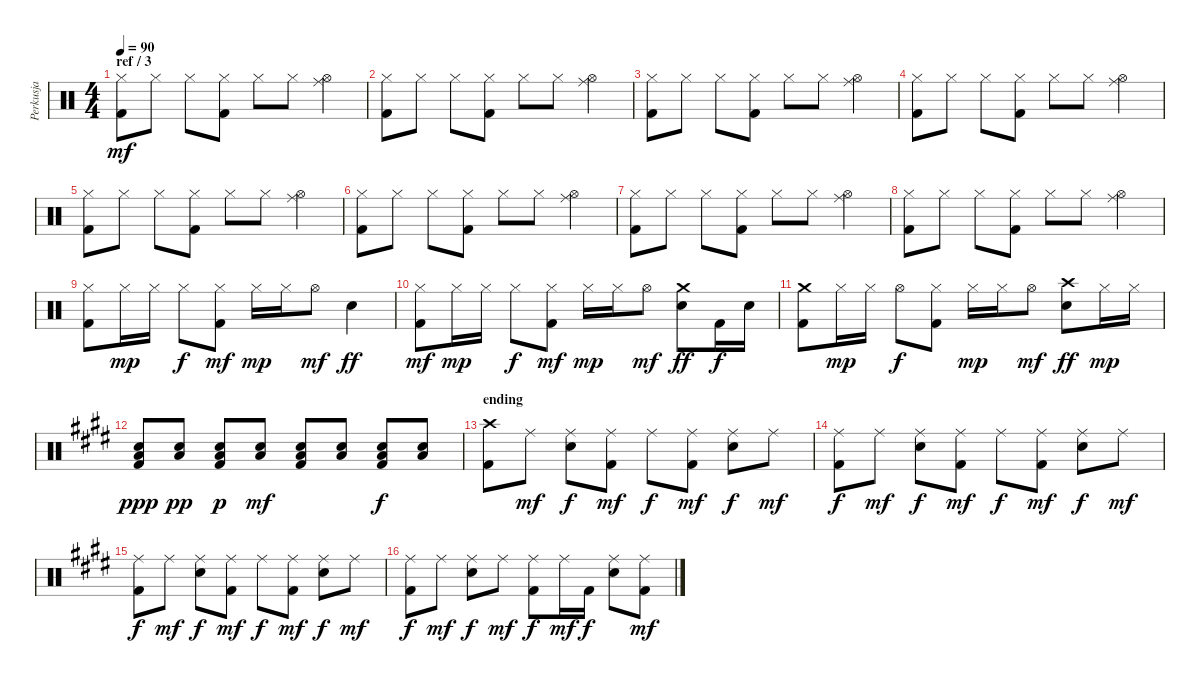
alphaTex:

\track ("Perkusja" "Perkusja") {instrument percussion}
\staff {score}
\articulation defaults
\ts (4 4)
\section ("" "ref / 3")
\tempo 90
\clef neutral
\ks c
("Hi-Hat (closed)" "Kick (hit) 2").8{dy mf} "Hi-Hat (closed)".8 "Hi-Hat (closed)".8 ("Hi-Hat (closed)" "Kick (hit) 2").8 "Hi-Hat (closed)".8 "Hi-Hat (closed)".8 ("Hi-Hat (open)" "Ride (middle)").4 |
("Hi-Hat (closed)" "Kick (hit) 2").8 "Hi-Hat (closed)".8 "Hi-Hat (closed)".8 ("Hi-Hat (closed)" "Kick (hit) 2").8 "Hi-Hat (closed)".8 "Hi-Hat (closed)".8 ("Hi-Hat (open)" "Ride (middle)").4 |
("Hi-Hat (closed)" "Kick (hit) 2").8 "Hi-Hat (closed)".8 "Hi-Hat (closed)".8 ("Hi-Hat (closed)" "Kick (hit) 2").8 "Hi-Hat (closed)".8 "Hi-Hat (closed)".8 ("Hi-Hat (open)" "Ride (middle)").4 |
("Hi-Hat (closed)" "Kick (hit) 2").8 "Hi-Hat (closed)".8 "Hi-Hat (closed)".8 ("Hi-Hat (closed)" "Kick (hit) 2").8 "Hi-Hat (closed)".8 "Hi-Hat (closed)".8 ("Hi-Hat (open)" "Ride (middle)").4 |
("Hi-Hat (closed)" "Kick (hit) 2").8 "Hi-Hat (closed)".8 "Hi-Hat (closed)".8 ("Hi-Hat (closed)" "Kick (hit) 2").8 "Hi-Hat (closed)".8 "Hi-Hat (closed)".8 ("Hi-Hat (open)" "Ride (middle)").4 |
("Hi-Hat (closed)" "Kick (hit) 2").8 "Hi-Hat (closed)".8 "Hi-Hat (closed)".8 ("Hi-Hat (closed)" "Kick (hit) 2").8 "Hi-Hat (closed)".8 "Hi-Hat (closed)".8 ("Hi-Hat (open)" "Ride (middle)").4 |
("Hi-Hat (closed)" "Kick (hit) 2").8 "Hi-Hat (closed)".8 "Hi-Hat (closed)".8 ("Hi-Hat (closed)" "Kick (hit) 2").8 "Hi-Hat (closed)".8 "Hi-Hat (closed)".8 ("Hi-Hat (open)" "Ride (middle)").4 |
("Hi-Hat (closed)" "Kick (hit) 2").8 "Hi-Hat (closed)".8 "Hi-Hat (closed)".8 ("Hi-Hat (closed)" "Kick (hit) 2").8 "Hi-Hat (closed)".8 "Hi-Hat (closed)".8 ("Hi-Hat (open)" "Ride (middle)").4 |
("Hi-Hat (closed)" "Kick (hit) 2").8 "Hi-Hat (closed)".16{dy mp} "Hi-Hat (closed)".16 "Hi-Hat (closed)".8{dy f} ("Hi-Hat (closed)" "Kick (hit) 2").8{dy mf} "Hi-Hat (closed)".16{dy mp} "Hi-Hat (closed)".16 "Hi-Hat (open)".8{dy mf} "Snare (hit) 2".4{dy ff} |
("Hi-Hat (closed)" "Kick (hit) 2").8{dy mf} "Hi-Hat (closed)".16{dy mp} "Hi-Hat (closed)".16 "Hi-Hat (closed)".8{dy f} ("Hi-Hat (closed)" "Kick (hit) 2").8{dy mf} "Hi-Hat (closed)".16{dy mp} "Hi-Hat (closed)".16 "Hi-Hat (open)".8{dy mf} ("Crash medium (hit)" "Snare (hit) 2").8{dy ff} "Kick (hit) 2".16{dy f} "Snare (hit) 2".16 |
("Crash medium (hit)" "Kick (hit) 2").8 "Hi-Hat (closed)".16{dy mp} "Hi-Hat (closed)".16 "Hi-Hat (open)".8{dy f} ("Hi-Hat (closed)" "Kick (hit) 2").8 "Hi-Hat (closed)".16{dy mp} "Hi-Hat (closed)".16 "Hi-Hat (open)".8{dy mf} ("Crash high (hit)" "Snare (hit) 2").8{dy ff} "Hi-Hat (closed)".16{dy mp} "Hi-Hat (closed)".16 |
\ks e
("Snare (hit) 2" "Kick (hit) 2" "Low Tom (hit)").8{dy ppp} ("Snare (hit) 2" "Low Tom (hit)").8{dy pp} ("Snare (hit) 2" "Kick (hit) 2" "Low Tom (hit)").8{dy p} ("Snare (hit) 2" "Low Tom (hit)").8{dy mf} ("Snare (hit) 2" "Kick (hit) 2" "Low Tom (hit)").8 ("Snare (hit) 2" "Low Tom (hit)").8 ("Snare (hit) 2" "Kick (hit) 2" "Low Tom (hit)").8{dy f} ("Snare (hit) 2" "Low Tom (hit)").8 |
\section ("" "ending")
("Crash high (hit)" "Kick (hit) 2").8 "Ride (middle)".8{dy mf} ("Ride (middle)" "Snare (hit) 2").8{dy f} ("Ride (middle)" "Kick (hit) 2").8{dy mf} "Ride (middle)".8{dy f} ("Ride (middle)" "Kick (hit) 2").8{dy mf} ("Ride (middle)" "Snare (hit) 2").8{dy f} "Ride (middle)".8{dy mf} |
("Ride (middle)" "Kick (hit) 2").8{dy f} "Ride (middle)".8{dy mf} ("Ride (middle)" "Snare (hit) 2").8{dy f} ("Ride (middle)" "Kick (hit) 2").8{dy mf} "Ride (middle)".8{dy f} ("Ride (middle)" "Kick (hit) 2").8{dy mf} ("Ride (middle)" "Snare (hit) 2").8{dy f} "Ride (middle)".8{dy mf} |
("Ride (middle)" "Kick (hit) 2").8{dy f} "Ride (middle)".8{dy mf} ("Ride (middle)" "Snare (hit) 2").8{dy f} ("Ride (middle)" "Kick (hit) 2").8{dy mf} "Ride (middle)".8{dy f} ("Ride (middle)" "Kick (hit) 2").8{dy mf} ("Ride (middle)" "Snare (hit) 2").8{dy f} "Ride (middle)".8{dy mf} |
("Ride (middle)" "Kick (hit) 2").8{dy f} "Ride (middle)".8{dy mf} ("Ride (middle)" "Snare (hit) 2").8{dy f} "Ride (middle)".8{dy mf} ("Ride (middle)" "Kick (hit) 2").8{dy f} "Ride (middle)".16{dy mf} "Kick (hit) 2".16{dy f} ("Ride (middle)" "Snare (hit) 2").8 ("Ride (middle)" "Kick (hit) 2").8{dy mf}
